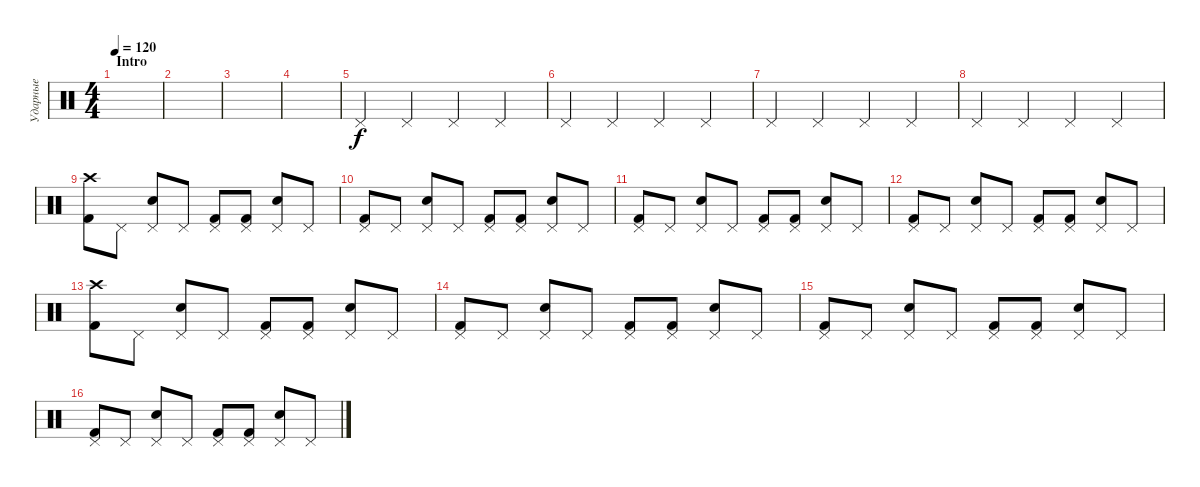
\track ("Ударные" "Ударные") {instrument percussion}
\staff {score}
\articulation defaults
\ts (4 4)
\section ("" "Intro")
\tempo 120
\clef neutral
\ks c
|
|
|
|
"Pedal Hi-Hat (hit)".4 "Pedal Hi-Hat (hit)".4 "Pedal Hi-Hat (hit)".4 "Pedal Hi-Hat (hit)".4 |
"Pedal Hi-Hat (hit)".4 "Pedal Hi-Hat (hit)".4 "Pedal Hi-Hat (hit)".4 "Pedal Hi-Hat (hit)".4 |
"Pedal Hi-Hat (hit)".4 "Pedal Hi-Hat (hit)".4 "Pedal Hi-Hat (hit)".4 "Pedal Hi-Hat (hit)".4 |
"Pedal Hi-Hat (hit)".4 "Pedal Hi-Hat (hit)".4 "Pedal Hi-Hat (hit)".4 "Pedal Hi-Hat (hit)".4 |
("Kick (hit) 2" "Crash high (hit)").8 "Pedal Hi-Hat (hit)".8 ("Electric Snare (hit)" "Pedal Hi-Hat (hit)").8 "Pedal Hi-Hat (hit)".8 ("Kick (hit) 2" "Pedal Hi-Hat (hit)").8 ("Kick (hit) 2" "Pedal Hi-Hat (hit)").8 ("Electric Snare (hit)" "Pedal Hi-Hat (hit)").8 "Pedal Hi-Hat (hit)".8 |
("Kick (hit) 2" "Pedal Hi-Hat (hit)").8 "Pedal Hi-Hat (hit)".8 ("Electric Snare (hit)" "Pedal Hi-Hat (hit)").8 "Pedal Hi-Hat (hit)".8 ("Kick (hit) 2" "Pedal Hi-Hat (hit)").8 ("Kick (hit) 2" "Pedal Hi-Hat (hit)").8 ("Electric Snare (hit)" "Pedal Hi-Hat (hit)").8 "Pedal Hi-Hat (hit)".8 |
("Kick (hit) 2" "Pedal Hi-Hat (hit)").8 "Pedal Hi-Hat (hit)".8 ("Electric Snare (hit)" "Pedal Hi-Hat (hit)").8 "Pedal Hi-Hat (hit)".8 ("Kick (hit) 2" "Pedal Hi-Hat (hit)").8 ("Kick (hit) 2" "Pedal Hi-Hat (hit)").8 ("Electric Snare (hit)" "Pedal Hi-Hat (hit)").8 "Pedal Hi-Hat (hit)".8 |
("Kick (hit) 2" "Pedal Hi-Hat (hit)").8 "Pedal Hi-Hat (hit)".8 ("Electric Snare (hit)" "Pedal Hi-Hat (hit)").8 "Pedal Hi-Hat (hit)".8 ("Kick (hit) 2" "Pedal Hi-Hat (hit)").8 ("Kick (hit) 2" "Pedal Hi-Hat (hit)").8 ("Electric Snare (hit)" "Pedal Hi-Hat (hit)").8 "Pedal Hi-Hat (hit)".8 |
("Kick (hit) 2" "Crash high (hit)").8 "Pedal Hi-Hat (hit)".8 ("Electric Snare (hit)" "Pedal Hi-Hat (hit)").8 "Pedal Hi-Hat (hit)".8 ("Kick (hit) 2" "Pedal Hi-Hat (hit)").8 ("Kick (hit) 2" "Pedal Hi-Hat (hit)").8 ("Electric Snare (hit)" "Pedal Hi-Hat (hit)").8 "Pedal Hi-Hat (hit)".8 |
("Kick (hit) 2" "Pedal Hi-Hat (hit)").8 "Pedal Hi-Hat (hit)".8 ("Electric Snare (hit)" "Pedal Hi-Hat (hit)").8 "Pedal Hi-Hat (hit)".8 ("Kick (hit) 2" "Pedal Hi-Hat (hit)").8 ("Kick (hit) 2" "Pedal Hi-Hat (hit)").8 ("Electric Snare (hit)" "Pedal Hi-Hat (hit)").8 "Pedal Hi-Hat (hit)".8 |
("Kick (hit) 2" "Pedal Hi-Hat (hit)").8 "Pedal Hi-Hat (hit)".8 ("Electric Snare (hit)" "Pedal Hi-Hat (hit)").8 "Pedal Hi-Hat (hit)".8 ("Kick (hit) 2" "Pedal Hi-Hat (hit)").8 ("Kick (hit) 2" "Pedal Hi-Hat (hit)").8 ("Electric Snare (hit)" "Pedal Hi-Hat (hit)").8 "Pedal Hi-Hat (hit)".8 |
("Kick (hit) 2" "Pedal Hi-Hat (hit)").8 "Pedal Hi-Hat (hit)".8 ("Electric Snare (hit)" "Pedal Hi-Hat (hit)").8 "Pedal Hi-Hat (hit)".8 ("Kick (hit) 2" "Pedal Hi-Hat (hit)").8 ("Kick (hit) 2" "Pedal Hi-Hat (hit)").8 ("Electric Snare (hit)" "Pedal Hi-Hat (hit)").8 "Pedal Hi-Hat (hit)".8
